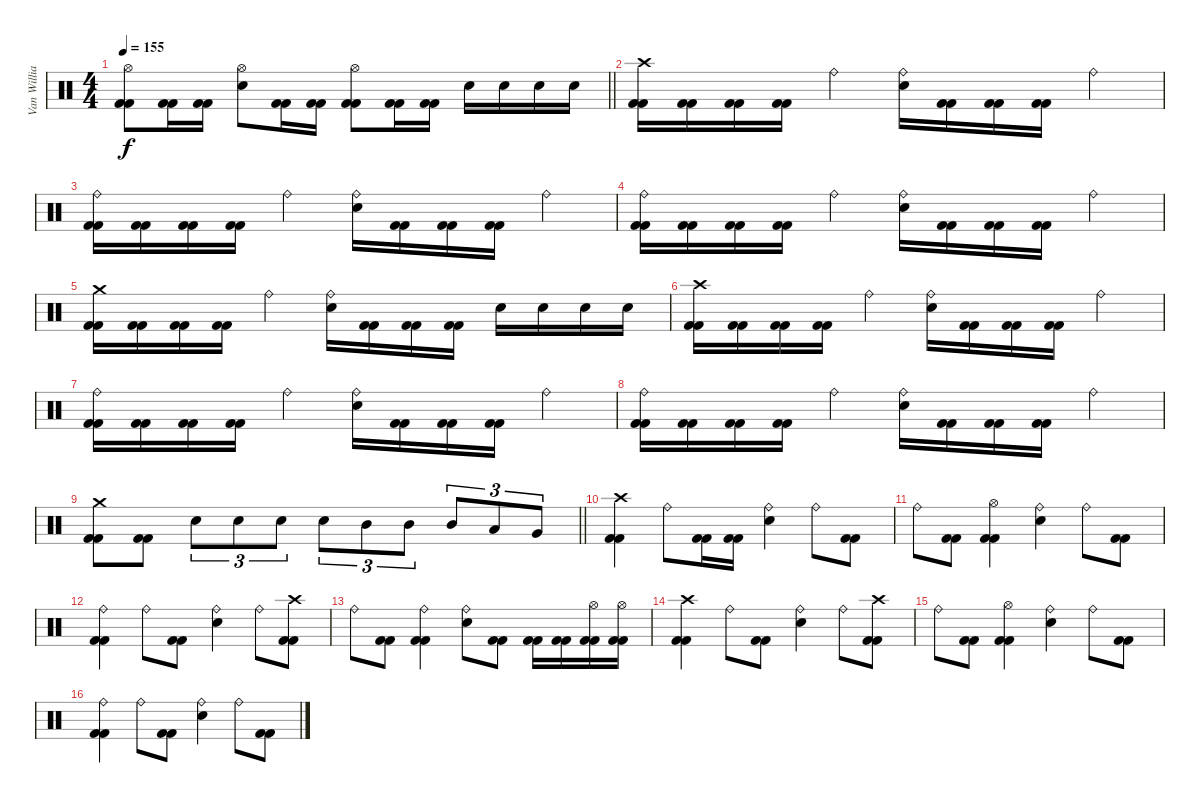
\track ("Van Williams" "Van Willia") {instrument percussion}
\staff {score}
\articulation defaults
\ts (4 4)
\tempo 155
\clef neutral
\barLineRight lightlight
\ks c
("Hi-Hat (open)" "Kick (hit) 2" "Kick (hit) 2").8{dy f} ("Kick (hit) 2" "Kick (hit) 2").16 ("Kick (hit) 2" "Kick (hit) 2").16 ("Hi-Hat (open)" "Electric Snare (hit)").8 ("Kick (hit) 2" "Kick (hit) 2").16 ("Kick (hit) 2" "Kick (hit) 2").16 ("Hi-Hat (open)" "Kick (hit) 2" "Kick (hit) 2").8 ("Kick (hit) 2" "Kick (hit) 2").16 ("Kick (hit) 2" "Kick (hit) 2").16 "Electric Snare (hit)".16 "Electric Snare (hit)".16 "Electric Snare (hit)".16 "Electric Snare (hit)".16 |
("Crash high (hit)" "Kick (hit) 2" "Kick (hit) 2").16 ("Kick (hit) 2" "Kick (hit) 2").16 ("Kick (hit) 2" "Kick (hit) 2").16 ("Kick (hit) 2" "Kick (hit) 2").16 "Ride (bell)".4 ("Ride (bell)" "Electric Snare (hit)").16 ("Kick (hit) 2" "Kick (hit) 2").16 ("Kick (hit) 2" "Kick (hit) 2").16 ("Kick (hit) 2" "Kick (hit) 2").16 "Ride (bell)".4 |
("Ride (bell)" "Kick (hit) 2" "Kick (hit) 2").16 ("Kick (hit) 2" "Kick (hit) 2").16 ("Kick (hit) 2" "Kick (hit) 2").16 ("Kick (hit) 2" "Kick (hit) 2").16 "Ride (bell)".4 ("Ride (bell)" "Electric Snare (hit)").16 ("Kick (hit) 2" "Kick (hit) 2").16 ("Kick (hit) 2" "Kick (hit) 2").16 ("Kick (hit) 2" "Kick (hit) 2").16 "Ride (bell)".4 |
("Ride (bell)" "Kick (hit) 2" "Kick (hit) 2").16 ("Kick (hit) 2" "Kick (hit) 2").16 ("Kick (hit) 2" "Kick (hit) 2").16 ("Kick (hit) 2" "Kick (hit) 2").16 "Ride (bell)".4 ("Ride (bell)" "Electric Snare (hit)").16 ("Kick (hit) 2" "Kick (hit) 2").16 ("Kick (hit) 2" "Kick (hit) 2").16 ("Kick (hit) 2" "Kick (hit) 2").16 "Ride (bell)".4 |
("Crash medium (hit)" "Kick (hit) 2" "Kick (hit) 2").16 ("Kick (hit) 2" "Kick (hit) 2").16 ("Kick (hit) 2" "Kick (hit) 2").16 ("Kick (hit) 2" "Kick (hit) 2").16 "Ride (bell)".4 ("Ride (bell)" "Electric Snare (hit)").16 ("Kick (hit) 2" "Kick (hit) 2").16 ("Kick (hit) 2" "Kick (hit) 2").16 ("Kick (hit) 2" "Kick (hit) 2").16 "Electric Snare (hit)".16 "Electric Snare (hit)".16 "Electric Snare (hit)".16 "Electric Snare (hit)".16 |
("Crash high (hit)" "Kick (hit) 2" "Kick (hit) 2").16 ("Kick (hit) 2" "Kick (hit) 2").16 ("Kick (hit) 2" "Kick (hit) 2").16 ("Kick (hit) 2" "Kick (hit) 2").16 "Ride (bell)".4 ("Ride (bell)" "Electric Snare (hit)").16 ("Kick (hit) 2" "Kick (hit) 2").16 ("Kick (hit) 2" "Kick (hit) 2").16 ("Kick (hit) 2" "Kick (hit) 2").16 "Ride (bell)".4 |
("Ride (bell)" "Kick (hit) 2" "Kick (hit) 2").16 ("Kick (hit) 2" "Kick (hit) 2").16 ("Kick (hit) 2" "Kick (hit) 2").16 ("Kick (hit) 2" "Kick (hit) 2").16 "Ride (bell)".4 ("Ride (bell)" "Electric Snare (hit)").16 ("Kick (hit) 2" "Kick (hit) 2").16 ("Kick (hit) 2" "Kick (hit) 2").16 ("Kick (hit) 2" "Kick (hit) 2").16 "Ride (bell)".4 |
("Ride (bell)" "Kick (hit) 2" "Kick (hit) 2").16 ("Kick (hit) 2" "Kick (hit) 2").16 ("Kick (hit) 2" "Kick (hit) 2").16 ("Kick (hit) 2" "Kick (hit) 2").16 "Ride (bell)".4 ("Ride (bell)" "Electric Snare (hit)").16 ("Kick (hit) 2" "Kick (hit) 2").16 ("Kick (hit) 2" "Kick (hit) 2").16 ("Kick (hit) 2" "Kick (hit) 2").16 "Ride (bell)".4 |
\barLineRight lightlight
("Crash medium (hit)" "Kick (hit) 2" "Kick (hit) 2").8 ("Kick (hit) 2" "Kick (hit) 2").8 "Electric Snare (hit)".8{tu (3 2)} "Electric Snare (hit)".8{tu (3 2)} "Electric Snare (hit)".8{tu (3 2)} "Electric Snare (hit)".8{tu (3 2)} "Mid Tom (hit)".8{tu (3 2)} "Mid Tom (hit)".8{tu (3 2)} "Mid Tom (hit)".8{tu (3 2)} "Low Tom (hit)".8{tu (3 2)} "Very Low Tom (hit)".8{tu (3 2)} |
("Crash high (hit)" "Kick (hit) 2" "Kick (hit) 2").4 "Ride (bell)".8 ("Kick (hit) 2" "Kick (hit) 2").16 ("Kick (hit) 2" "Kick (hit) 2").16 ("Ride (bell)" "Electric Snare (hit)").4 "Ride (bell)".8 ("Kick (hit) 2" "Kick (hit) 2").8 |
"Ride (bell)".8 ("Kick (hit) 2" "Kick (hit) 2").8 ("Hi-Hat (open)" "Kick (hit) 2" "Kick (hit) 2").4 ("Ride (bell)" "Electric Snare (hit)").4 "Ride (bell)".8 ("Kick (hit) 2" "Kick (hit) 2").8 |
("Ride (bell)" "Kick (hit) 2" "Kick (hit) 2").4 "Ride (bell)".8 ("Kick (hit) 2" "Kick (hit) 2").8 ("Ride (bell)" "Electric Snare (hit)").4 "Ride (bell)".8 ("Crash high (hit)" "Kick (hit) 2" "Kick (hit) 2").8 |
"Ride (bell)".8 ("Kick (hit) 2" "Kick (hit) 2").8 ("Ride (bell)" "Kick (hit) 2" "Kick (hit) 2").4 ("Ride (bell)" "Electric Snare (hit)").8 ("Kick (hit) 2" "Kick (hit) 2").8 ("Kick (hit) 2" "Kick (hit) 2").16 ("Kick (hit) 2" "Kick (hit) 2").16 ("Hi-Hat (open)" "Kick (hit) 2" "Kick (hit) 2").16 ("Hi-Hat (open)" "Kick (hit) 2" "Kick (hit) 2").16 |
("Crash high (hit)" "Kick (hit) 2" "Kick (hit) 2").4 "Ride (bell)".8 ("Kick (hit) 2" "Kick (hit) 2").8 ("Ride (bell)" "Electric Snare (hit)").4 "Ride (bell)".8 ("Crash high (hit)" "Kick (hit) 2" "Kick (hit) 2").8 |
"Ride (bell)".8 ("Kick (hit) 2" "Kick (hit) 2").8 ("Hi-Hat (open)" "Kick (hit) 2" "Kick (hit) 2").4 ("Ride (bell)" "Electric Snare (hit)").4 "Ride (bell)".8 ("Kick (hit) 2" "Kick (hit) 2").8 |
("Ride (bell)" "Kick (hit) 2" "Kick (hit) 2").4 "Ride (bell)".8 ("Kick (hit) 2" "Kick (hit) 2").8 ("Ride (bell)" "Electric Snare (hit)").4 "Ride (bell)".8 ("Kick (hit) 2" "Kick (hit) 2").8
